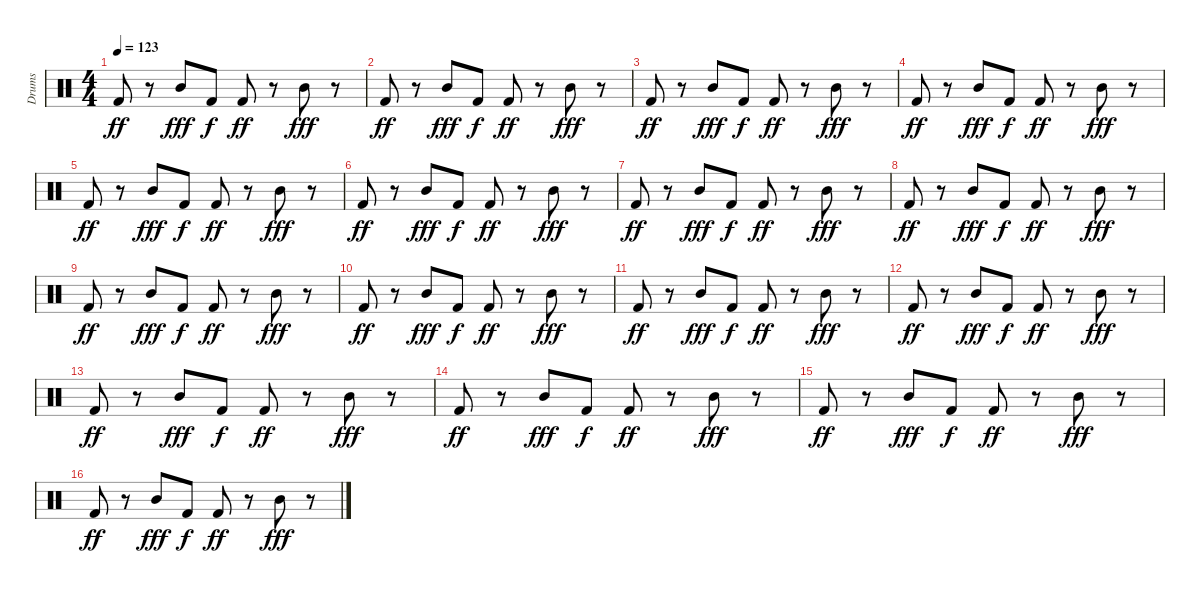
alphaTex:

\track ("Drums" "Drums") {instrument percussion}
\staff {score}
\articulation defaults
\ts (4 4)
\tempo 123
\clef neutral
\ks c "Kick (hit) 2".8{dy ff}
r.8 "Mid Tom (hit)".8{dy fff} "Kick (hit) 2".8{dy f} "Kick (hit) 2".8{dy ff} r.8 "Mid Tom (hit)".8{dy fff} r.8 |
"Kick (hit) 2".8{dy ff} r.8 "Mid Tom (hit)".8{dy fff} "Kick (hit) 2".8{dy f} "Kick (hit) 2".8{dy ff} r.8 "Mid Tom (hit)".8{dy fff} r.8 |
"Kick (hit) 2".8{dy ff} r.8 "Mid Tom (hit)".8{dy fff} "Kick (hit) 2".8{dy f} "Kick (hit) 2".8{dy ff} r.8 "Mid Tom (hit)".8{dy fff} r.8 |
"Kick (hit) 2".8{dy ff} r.8 "Mid Tom (hit)".8{dy fff} "Kick (hit) 2".8{dy f} "Kick (hit) 2".8{dy ff} r.8 "Mid Tom (hit)".8{dy fff} r.8 |
"Kick (hit) 2".8{dy ff} r.8 "Mid Tom (hit)".8{dy fff} "Kick (hit) 2".8{dy f} "Kick (hit) 2".8{dy ff} r.8 "Mid Tom (hit)".8{dy fff} r.8 |
"Kick (hit) 2".8{dy ff} r.8 "Mid Tom (hit)".8{dy fff} "Kick (hit) 2".8{dy f} "Kick (hit) 2".8{dy ff} r.8 "Mid Tom (hit)".8{dy fff} r.8 |
"Kick (hit) 2".8{dy ff} r.8 "Mid Tom (hit)".8{dy fff} "Kick (hit) 2".8{dy f} "Kick (hit) 2".8{dy ff} r.8 "Mid Tom (hit)".8{dy fff} r.8 |
"Kick (hit) 2".8{dy ff} r.8 "Mid Tom (hit)".8{dy fff} "Kick (hit) 2".8{dy f} "Kick (hit) 2".8{dy ff} r.8 "Mid Tom (hit)".8{dy fff} r.8 |
"Kick (hit) 2".8{dy ff} r.8 "Mid Tom (hit)".8{dy fff} "Kick (hit) 2".8{dy f} "Kick (hit) 2".8{dy ff} r.8 "Mid Tom (hit)".8{dy fff} r.8 |
"Kick (hit) 2".8{dy ff} r.8 "Mid Tom (hit)".8{dy fff} "Kick (hit) 2".8{dy f} "Kick (hit) 2".8{dy ff} r.8 "Mid Tom (hit)".8{dy fff} r.8 |
"Kick (hit) 2".8{dy ff} r.8 "Mid Tom (hit)".8{dy fff} "Kick (hit) 2".8{dy f} "Kick (hit) 2".8{dy ff} r.8 "Mid Tom (hit)".8{dy fff} r.8 |
"Kick (hit) 2".8{dy ff} r.8 "Mid Tom (hit)".8{dy fff} "Kick (hit) 2".8{dy f} "Kick (hit) 2".8{dy ff} r.8 "Mid Tom (hit)".8{dy fff} r.8 |
"Kick (hit) 2".8{dy ff} r.8 "Mid Tom (hit)".8{dy fff} "Kick (hit) 2".8{dy f} "Kick (hit) 2".8{dy ff} r.8 "Mid Tom (hit)".8{dy fff} r.8 |
"Kick (hit) 2".8{dy ff} r.8 "Mid Tom (hit)".8{dy fff} "Kick (hit) 2".8{dy f} "Kick (hit) 2".8{dy ff} r.8 "Mid Tom (hit)".8{dy fff} r.8 |
"Kick (hit) 2".8{dy ff} r.8 "Mid Tom (hit)".8{dy fff} "Kick (hit) 2".8{dy f} "Kick (hit) 2".8{dy ff} r.8 "Mid Tom (hit)".8{dy fff} r.8 |
"Kick (hit) 2".8{dy ff} r.8 "Mid Tom (hit)".8{dy fff} "Kick (hit) 2".8{dy f} "Kick (hit) 2".8{dy ff} r.8 "Mid Tom (hit)".8{dy fff} r.8
